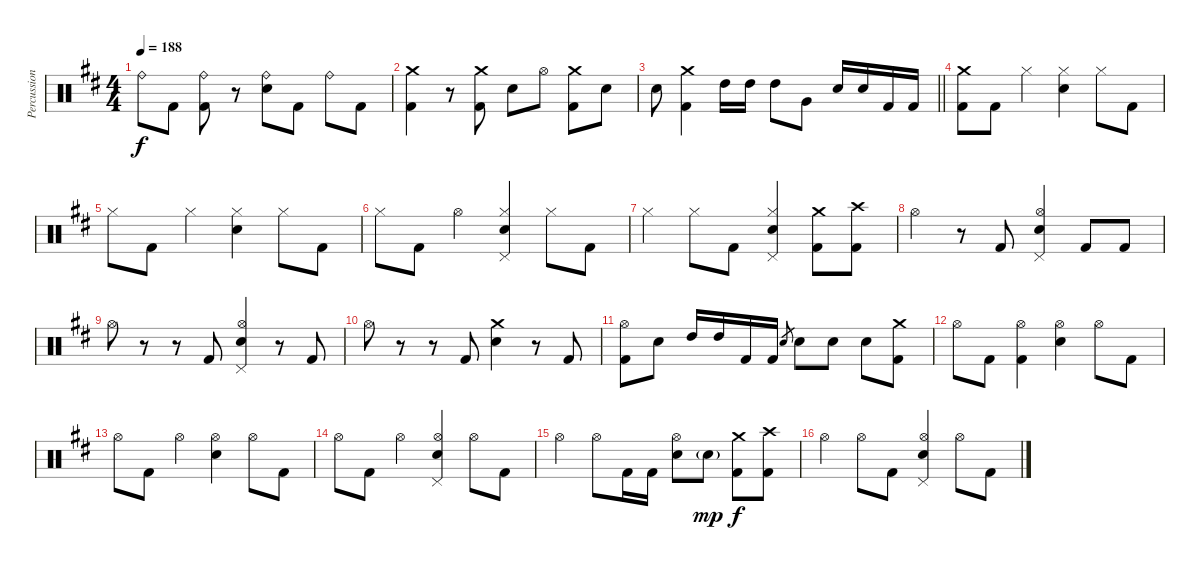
\track ("Percussion" "Percussion") {instrument percussion}
\staff {score}
\articulation defaults
\ts (4 4)
\tempo 188
\clef neutral
\ks bminor "Ride (bell)".8{dy f} "Kick (hit) 2".8
("Kick (hit) 2" "Ride (bell)").8 r.8 ("Electric Snare (hit)" "Ride (bell)").8 "Kick (hit) 2".8 "Ride (bell)".8 "Kick (hit) 2".8 |
("Kick (hit) 2" "Crash medium (hit)").4 r.8 ("Crash medium (hit)" "Kick (hit) 2").8 "Electric Snare (hit)".8 "Hi-Hat (open)".8 ("Kick (hit) 2" "Crash medium (hit)").8 "Electric Snare (hit)".8 |
\barLineRight lightlight "Electric Snare (hit)".8
("Kick (hit) 2" "Crash medium (hit)").4 "High Tom (hit)".16 "High Tom (hit)".16 "High Tom (hit)".8 "Very Low Tom (hit)".8 "Electric Snare (hit)".16 "Electric Snare (hit)".16 "Kick (hit) 2".16 "Kick (hit) 2".16 |
("Crash medium (hit)" "Kick (hit) 2").8 "Kick (hit) 2".8 "Hi-Hat (closed)".4 ("Electric Snare (hit)" "Hi-Hat (closed)").4 "Hi-Hat (closed)".8 "Kick (hit) 2".8 |
"Hi-Hat (closed)".8 "Kick (hit) 2".8 "Hi-Hat (closed)".4 ("Electric Snare (hit)" "Hi-Hat (closed)").4 "Hi-Hat (closed)".8 "Kick (hit) 2".8 |
"Hi-Hat (closed)".8 "Kick (hit) 2".8 "Hi-Hat (open)".4 ("Electric Snare (hit)" "Pedal Hi-Hat (hit)" "Hi-Hat (closed)").4 "Hi-Hat (closed)".8 "Kick (hit) 2".8 |
"Hi-Hat (closed)".4 "Hi-Hat (closed)".8 "Kick (hit) 2".8 ("Pedal Hi-Hat (hit)" "Electric Snare (hit)" "Hi-Hat (closed)").4 ("Kick (hit) 2" "Crash medium (hit)").8 ("Crash high (hit)" "Kick (hit) 2").8 |
"Hi-Hat (open)".4 r.8 "Kick (hit) 2".8 ("Pedal Hi-Hat (hit)" "Electric Snare (hit)" "Hi-Hat (open)").4 "Kick (hit) 2".8 "Kick (hit) 2".8 |
"Hi-Hat (open)".8 r.8 r.8 "Kick (hit) 2".8 ("Pedal Hi-Hat (hit)" "Electric Snare (hit)" "Hi-Hat (open)").4 r.8 "Kick (hit) 2".8 |
"Hi-Hat (open)".8 r.8 r.8 "Kick (hit) 2".8 ("Electric Snare (hit)" "Crash medium (hit)").4 r.8 "Kick (hit) 2".8 |
("Hi-Hat (open)" "Kick (hit) 2").8 "Electric Snare (hit)".8 "High Tom (hit)".16 "High Tom (hit)".16 "Kick (hit) 2".16 "Kick (hit) 2".16 "Electric Snare (hit)".8{gr} "Electric Snare (hit)".8 "Electric Snare (hit)".8 "Electric Snare (hit)".8 ("Crash medium (hit)" "Kick (hit) 2").8 |
"Hi-Hat (open)".8 "Kick (hit) 2".8 ("Kick (hit) 2" "Hi-Hat (open)").4 ("Electric Snare (hit)" "Hi-Hat (open)").4 "Hi-Hat (open)".8 "Kick (hit) 2".8 |
"Hi-Hat (open)".8 "Kick (hit) 2".8 "Hi-Hat (open)".4 ("Electric Snare (hit)" "Hi-Hat (open)").4 "Hi-Hat (open)".8 "Kick (hit) 2".8 |
"Hi-Hat (open)".8 "Kick (hit) 2".8 "Hi-Hat (open)".4 ("Electric Snare (hit)" "Pedal Hi-Hat (hit)" "Hi-Hat (open)").4 "Hi-Hat (open)".8 "Kick (hit) 2".8 |
"Hi-Hat (open)".4 "Hi-Hat (open)".8 "Kick (hit) 2".16 "Kick (hit) 2".16 ("Electric Snare (hit)" "Hi-Hat (open)").8 "Electric Snare (hit)"{g}.8{dy mp} ("Kick (hit) 2" "Crash medium (hit)").8{dy f} ("Crash high (hit)" "Kick (hit) 2").8 |
"Hi-Hat (open)".4 "Hi-Hat (open)".8 "Kick (hit) 2".8 ("Pedal Hi-Hat (hit)" "Electric Snare (hit)" "Hi-Hat (open)").4 "Hi-Hat (open)".8 "Kick (hit) 2".8
